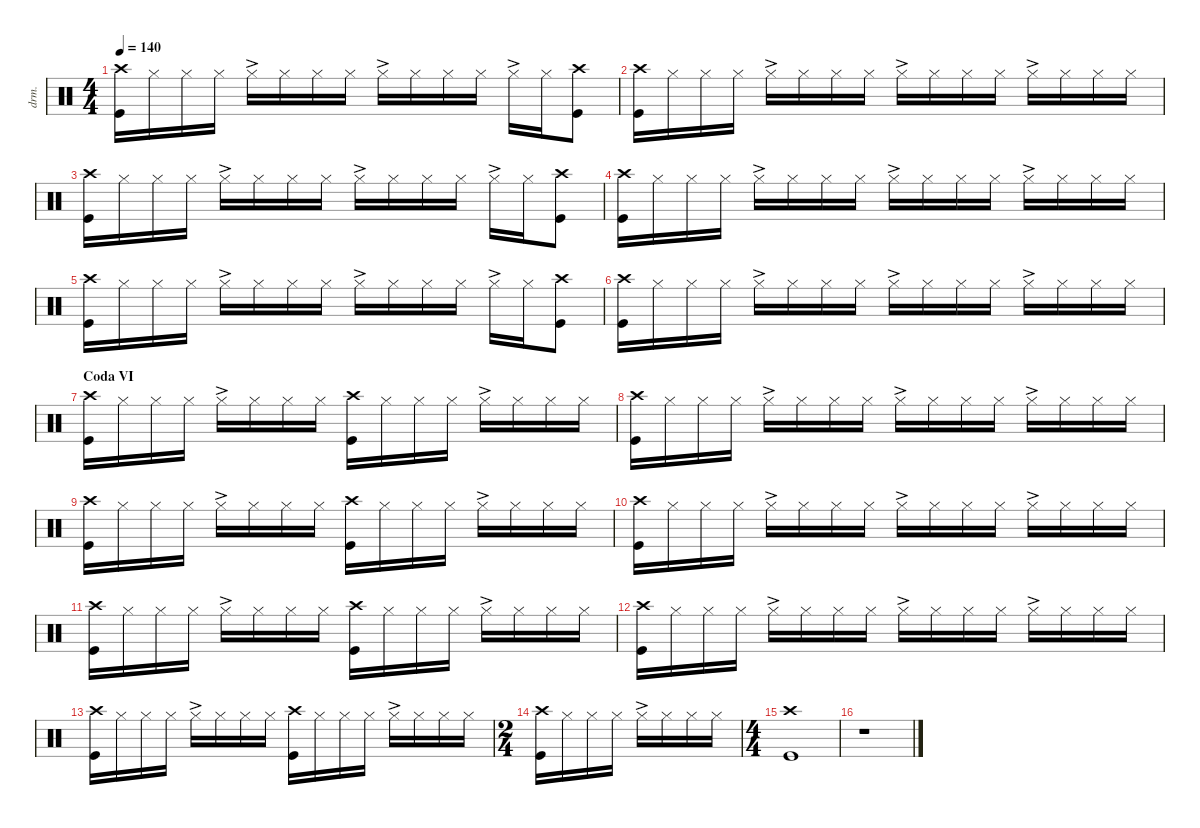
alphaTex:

\defaultSystemsLayout 4
\hideDynamics
\bracketExtendMode nobrackets
\otherSystemsTrackNameOrientation horizontal
\track ("Drums" "drm.") {multiBarRest instrument percussion}
\staff
\articulation defaults
\ts (4 4)
\tempo 140
\clef neutral
\ks c
("Kick (hit)" "Crash high (hit)").16{dy f} "Hi-Hat (closed)".16{dy mf} "Hi-Hat (closed)".16 "Hi-Hat (closed)".16 "Hi-Hat (closed)"{ac}.16 "Hi-Hat (closed)".16 "Hi-Hat (closed)".16 "Hi-Hat (closed)".16 "Hi-Hat (closed)"{ac}.16 "Hi-Hat (closed)".16 "Hi-Hat (closed)".16 "Hi-Hat (closed)".16 "Hi-Hat (closed)"{ac}.16 "Hi-Hat (closed)".16 ("Kick (hit)" "Crash high (hit)").8{dy f} |
("Kick (hit)" "Crash high (hit)").16 "Hi-Hat (closed)".16{dy mf} "Hi-Hat (closed)".16 "Hi-Hat (closed)".16 "Hi-Hat (closed)"{ac}.16 "Hi-Hat (closed)".16 "Hi-Hat (closed)".16 "Hi-Hat (closed)".16 "Hi-Hat (closed)"{ac}.16 "Hi-Hat (closed)".16 "Hi-Hat (closed)".16 "Hi-Hat (closed)".16 "Hi-Hat (closed)"{ac}.16 "Hi-Hat (closed)".16 "Hi-Hat (closed)".16 "Hi-Hat (closed)".16 |
("Kick (hit)" "Crash high (hit)").16{dy f} "Hi-Hat (closed)".16{dy mf} "Hi-Hat (closed)".16 "Hi-Hat (closed)".16 "Hi-Hat (closed)"{ac}.16 "Hi-Hat (closed)".16 "Hi-Hat (closed)".16 "Hi-Hat (closed)".16 "Hi-Hat (closed)"{ac}.16 "Hi-Hat (closed)".16 "Hi-Hat (closed)".16 "Hi-Hat (closed)".16 "Hi-Hat (closed)"{ac}.16 "Hi-Hat (closed)".16 ("Kick (hit)" "Crash high (hit)").8{dy f} |
("Kick (hit)" "Crash high (hit)").16 "Hi-Hat (closed)".16{dy mf} "Hi-Hat (closed)".16 "Hi-Hat (closed)".16 "Hi-Hat (closed)"{ac}.16 "Hi-Hat (closed)".16 "Hi-Hat (closed)".16 "Hi-Hat (closed)".16 "Hi-Hat (closed)"{ac}.16 "Hi-Hat (closed)".16 "Hi-Hat (closed)".16 "Hi-Hat (closed)".16 "Hi-Hat (closed)"{ac}.16 "Hi-Hat (closed)".16 "Hi-Hat (closed)".16 "Hi-Hat (closed)".16 |
("Kick (hit)" "Crash high (hit)").16{dy f} "Hi-Hat (closed)".16{dy mf} "Hi-Hat (closed)".16 "Hi-Hat (closed)".16 "Hi-Hat (closed)"{ac}.16 "Hi-Hat (closed)".16 "Hi-Hat (closed)".16 "Hi-Hat (closed)".16 "Hi-Hat (closed)"{ac}.16 "Hi-Hat (closed)".16 "Hi-Hat (closed)".16 "Hi-Hat (closed)".16 "Hi-Hat (closed)"{ac}.16 "Hi-Hat (closed)".16 ("Kick (hit)" "Crash high (hit)").8{dy f} |
("Kick (hit)" "Crash high (hit)").16 "Hi-Hat (closed)".16{dy mf} "Hi-Hat (closed)".16 "Hi-Hat (closed)".16 "Hi-Hat (closed)"{ac}.16 "Hi-Hat (closed)".16 "Hi-Hat (closed)".16 "Hi-Hat (closed)".16 "Hi-Hat (closed)"{ac}.16 "Hi-Hat (closed)".16 "Hi-Hat (closed)".16 "Hi-Hat (closed)".16 "Hi-Hat (closed)"{ac}.16 "Hi-Hat (closed)".16 "Hi-Hat (closed)".16 "Hi-Hat (closed)".16 |
\section ("" "Coda VI")
("Kick (hit)" "Crash high (hit)").16{dy f} "Hi-Hat (closed)".16{dy mf} "Hi-Hat (closed)".16 "Hi-Hat (closed)".16 "Hi-Hat (closed)"{ac}.16 "Hi-Hat (closed)".16 "Hi-Hat (closed)".16 "Hi-Hat (closed)".16 ("Crash high (hit)" "Kick (hit)").16{dy f} "Hi-Hat (closed)".16{dy mf} "Hi-Hat (closed)".16 "Hi-Hat (closed)".16 "Hi-Hat (closed)"{ac}.16 "Hi-Hat (closed)".16 "Hi-Hat (closed)".16 "Hi-Hat (closed)".16 |
("Kick (hit)" "Crash high (hit)").16{dy f} "Hi-Hat (closed)".16{dy mf} "Hi-Hat (closed)".16 "Hi-Hat (closed)".16 "Hi-Hat (closed)"{ac}.16 "Hi-Hat (closed)".16 "Hi-Hat (closed)".16 "Hi-Hat (closed)".16 "Hi-Hat (closed)"{ac}.16 "Hi-Hat (closed)".16 "Hi-Hat (closed)".16 "Hi-Hat (closed)".16 "Hi-Hat (closed)"{ac}.16 "Hi-Hat (closed)".16 "Hi-Hat (closed)".16 "Hi-Hat (closed)".16 |
("Kick (hit)" "Crash high (hit)").16{dy f} "Hi-Hat (closed)".16{dy mf} "Hi-Hat (closed)".16 "Hi-Hat (closed)".16 "Hi-Hat (closed)"{ac}.16 "Hi-Hat (closed)".16 "Hi-Hat (closed)".16 "Hi-Hat (closed)".16 ("Crash high (hit)" "Kick (hit)").16{dy f} "Hi-Hat (closed)".16{dy mf} "Hi-Hat (closed)".16 "Hi-Hat (closed)".16 "Hi-Hat (closed)"{ac}.16 "Hi-Hat (closed)".16 "Hi-Hat (closed)".16 "Hi-Hat (closed)".16 |
("Kick (hit)" "Crash high (hit)").16{dy f} "Hi-Hat (closed)".16{dy mf} "Hi-Hat (closed)".16 "Hi-Hat (closed)".16 "Hi-Hat (closed)"{ac}.16 "Hi-Hat (closed)".16 "Hi-Hat (closed)".16 "Hi-Hat (closed)".16 "Hi-Hat (closed)"{ac}.16 "Hi-Hat (closed)".16 "Hi-Hat (closed)".16 "Hi-Hat (closed)".16 "Hi-Hat (closed)"{ac}.16 "Hi-Hat (closed)".16 "Hi-Hat (closed)".16 "Hi-Hat (closed)".16 |
("Kick (hit)" "Crash high (hit)").16{dy f} "Hi-Hat (closed)".16{dy mf} "Hi-Hat (closed)".16 "Hi-Hat (closed)".16 "Hi-Hat (closed)"{ac}.16 "Hi-Hat (closed)".16 "Hi-Hat (closed)".16 "Hi-Hat (closed)".16 ("Crash high (hit)" "Kick (hit)").16{dy f} "Hi-Hat (closed)".16{dy mf} "Hi-Hat (closed)".16 "Hi-Hat (closed)".16 "Hi-Hat (closed)"{ac}.16 "Hi-Hat (closed)".16 "Hi-Hat (closed)".16 "Hi-Hat (closed)".16 |
("Kick (hit)" "Crash high (hit)").16{dy f} "Hi-Hat (closed)".16{dy mf} "Hi-Hat (closed)".16 "Hi-Hat (closed)".16 "Hi-Hat (closed)"{ac}.16 "Hi-Hat (closed)".16 "Hi-Hat (closed)".16 "Hi-Hat (closed)".16 "Hi-Hat (closed)"{ac}.16 "Hi-Hat (closed)".16 "Hi-Hat (closed)".16 "Hi-Hat (closed)".16 "Hi-Hat (closed)"{ac}.16 "Hi-Hat (closed)".16 "Hi-Hat (closed)".16 "Hi-Hat (closed)".16 |
("Kick (hit)" "Crash high (hit)").16{dy f} "Hi-Hat (closed)".16{dy mf} "Hi-Hat (closed)".16 "Hi-Hat (closed)".16 "Hi-Hat (closed)"{ac}.16 "Hi-Hat (closed)".16 "Hi-Hat (closed)".16 "Hi-Hat (closed)".16 ("Crash high (hit)" "Kick (hit)").16{dy f} "Hi-Hat (closed)".16{dy mf} "Hi-Hat (closed)".16 "Hi-Hat (closed)".16 "Hi-Hat (closed)"{ac}.16 "Hi-Hat (closed)".16 "Hi-Hat (closed)".16 "Hi-Hat (closed)".16 |
\ts (2 4)
\beaming (8 2 2)
("Kick (hit)" "Crash high (hit)").16{dy f} "Hi-Hat (closed)".16{dy mf} "Hi-Hat (closed)".16 "Hi-Hat (closed)".16 "Hi-Hat (closed)"{ac}.16 "Hi-Hat (closed)".16 "Hi-Hat (closed)".16 "Hi-Hat (closed)".16 |
\ts (4 4)
\beaming (8 2 2 2 2)
("Kick (hit)" "Crash high (hit)").1{dy f} |
r.1
